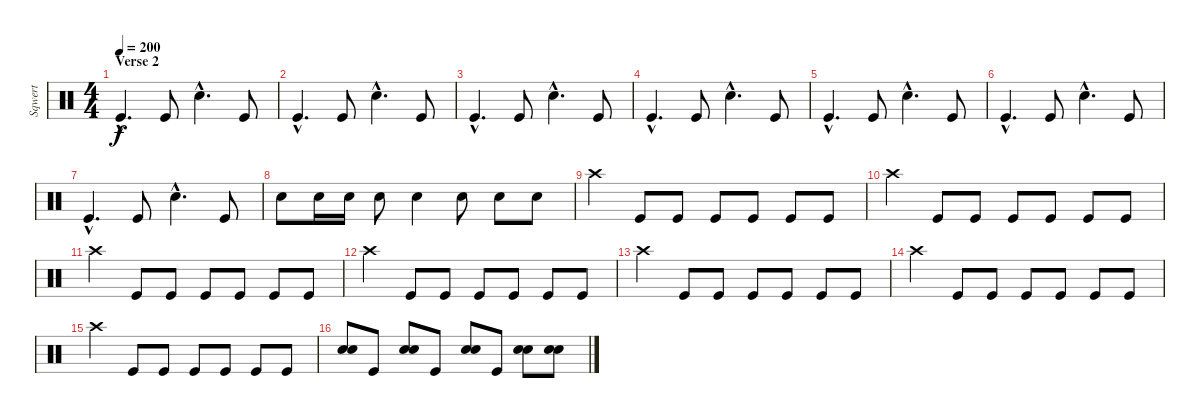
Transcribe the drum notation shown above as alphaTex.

\track ("Sqwert" "Sqwert") {instrument percussion}
\staff {score}
\articulation defaults
\ts (4 4)
\section ("" "Verse 2")
\tempo 200
\clef neutral
\ks c "Kick (hit)"{hac}.4{d dy f} "Kick (hit)".8 "Snare (hit) 2"{hac}.4{d} "Kick (hit)".8
|
"Kick (hit)"{hac}.4{d} "Kick (hit)".8 "Snare (hit) 2"{hac}.4{d} "Kick (hit)".8 |
"Kick (hit)"{hac}.4{d} "Kick (hit)".8 "Snare (hit) 2"{hac}.4{d} "Kick (hit)".8 |
"Kick (hit)"{hac}.4{d} "Kick (hit)".8 "Snare (hit) 2"{hac}.4{d} "Kick (hit)".8 |
"Kick (hit)"{hac}.4{d} "Kick (hit)".8 "Snare (hit) 2"{hac}.4{d} "Kick (hit)".8 |
"Kick (hit)"{hac}.4{d} "Kick (hit)".8 "Snare (hit) 2"{hac}.4{d} "Kick (hit)".8 |
"Kick (hit)"{hac}.4{d} "Kick (hit)".8 "Snare (hit) 2"{hac}.4{d} "Kick (hit)".8 |
"Snare (hit) 2".8 "Snare (hit) 2".16 "Snare (hit) 2".16 "Snare (hit) 2".8 "Snare (hit) 2".4 "Snare (hit) 2".8 "Snare (hit) 2".8 "Snare (hit) 2".8 |
"Crash high (hit)".4 "Kick (hit)".8 "Kick (hit)".8 "Kick (hit)".8 "Kick (hit)".8 "Kick (hit)".8 "Kick (hit)".8 |
"Crash high (hit)".4 "Kick (hit)".8 "Kick (hit)".8 "Kick (hit)".8 "Kick (hit)".8 "Kick (hit)".8 "Kick (hit)".8 |
"Crash high (hit)".4 "Kick (hit)".8 "Kick (hit)".8 "Kick (hit)".8 "Kick (hit)".8 "Kick (hit)".8 "Kick (hit)".8 |
"Crash high (hit)".4 "Kick (hit)".8 "Kick (hit)".8 "Kick (hit)".8 "Kick (hit)".8 "Kick (hit)".8 "Kick (hit)".8 |
"Crash high (hit)".4 "Kick (hit)".8 "Kick (hit)".8 "Kick (hit)".8 "Kick (hit)".8 "Kick (hit)".8 "Kick (hit)".8 |
"Crash high (hit)".4 "Kick (hit)".8 "Kick (hit)".8 "Kick (hit)".8 "Kick (hit)".8 "Kick (hit)".8 "Kick (hit)".8 |
"Crash high (hit)".4 "Kick (hit)".8 "Kick (hit)".8 "Kick (hit)".8 "Kick (hit)".8 "Kick (hit)".8 "Kick (hit)".8 |
("Snare (hit) 2" "Snare (hit) 2").8 "Kick (hit)".8 ("Snare (hit) 2" "Snare (hit) 2").8 "Kick (hit)".8 ("Snare (hit) 2" "Snare (hit) 2").8 "Kick (hit)".8 ("Snare (hit) 2" "Snare (hit) 2").8 ("Snare (hit) 2" "Snare (hit) 2").8
